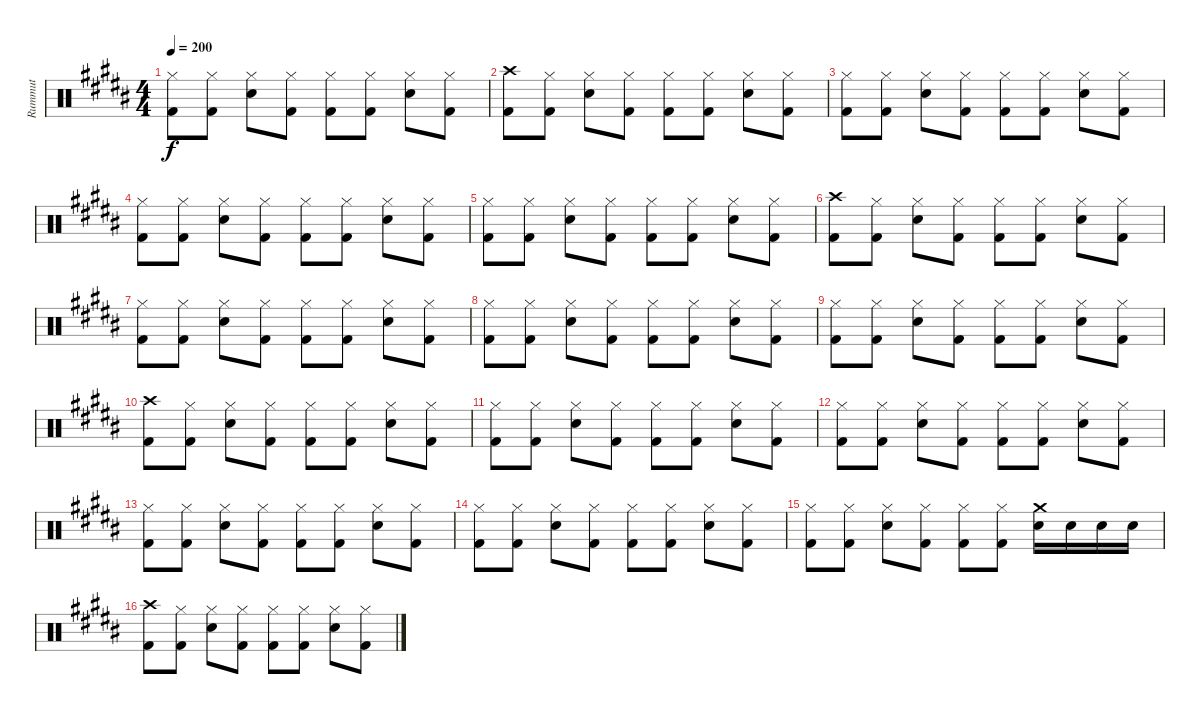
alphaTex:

\track ("Rummut" "Rummut") {instrument percussion}
\staff {score}
\articulation defaults
\ts (4 4)
\tempo 200
\clef neutral
\ks b
("Hi-Hat (closed)" "Kick (hit) 2").8{dy f} ("Hi-Hat (closed)" "Kick (hit) 2").8 ("Hi-Hat (closed)" "Electric Snare (hit)").8 ("Hi-Hat (closed)" "Kick (hit) 2").8 ("Hi-Hat (closed)" "Kick (hit) 2").8 ("Hi-Hat (closed)" "Kick (hit) 2").8 ("Hi-Hat (closed)" "Electric Snare (hit)").8 ("Hi-Hat (closed)" "Kick (hit) 2").8 |
("Crash high (hit)" "Kick (hit) 2").8 ("Hi-Hat (closed)" "Kick (hit) 2").8 ("Hi-Hat (closed)" "Electric Snare (hit)").8 ("Hi-Hat (closed)" "Kick (hit) 2").8 ("Hi-Hat (closed)" "Kick (hit) 2").8 ("Hi-Hat (closed)" "Kick (hit) 2").8 ("Hi-Hat (closed)" "Electric Snare (hit)").8 ("Hi-Hat (closed)" "Kick (hit) 2").8 |
("Hi-Hat (closed)" "Kick (hit) 2").8 ("Hi-Hat (closed)" "Kick (hit) 2").8 ("Hi-Hat (closed)" "Electric Snare (hit)").8 ("Hi-Hat (closed)" "Kick (hit) 2").8 ("Hi-Hat (closed)" "Kick (hit) 2").8 ("Hi-Hat (closed)" "Kick (hit) 2").8 ("Hi-Hat (closed)" "Electric Snare (hit)").8 ("Hi-Hat (closed)" "Kick (hit) 2").8 |
("Hi-Hat (closed)" "Kick (hit) 2").8 ("Hi-Hat (closed)" "Kick (hit) 2").8 ("Hi-Hat (closed)" "Electric Snare (hit)").8 ("Hi-Hat (closed)" "Kick (hit) 2").8 ("Hi-Hat (closed)" "Kick (hit) 2").8 ("Hi-Hat (closed)" "Kick (hit) 2").8 ("Hi-Hat (closed)" "Electric Snare (hit)").8 ("Hi-Hat (closed)" "Kick (hit) 2").8 |
("Hi-Hat (closed)" "Kick (hit) 2").8 ("Hi-Hat (closed)" "Kick (hit) 2").8 ("Hi-Hat (closed)" "Electric Snare (hit)").8 ("Hi-Hat (closed)" "Kick (hit) 2").8 ("Hi-Hat (closed)" "Kick (hit) 2").8 ("Hi-Hat (closed)" "Kick (hit) 2").8 ("Hi-Hat (closed)" "Electric Snare (hit)").8 ("Hi-Hat (closed)" "Kick (hit) 2").8 |
("Crash high (hit)" "Kick (hit) 2").8 ("Hi-Hat (closed)" "Kick (hit) 2").8 ("Hi-Hat (closed)" "Electric Snare (hit)").8 ("Hi-Hat (closed)" "Kick (hit) 2").8 ("Hi-Hat (closed)" "Kick (hit) 2").8 ("Hi-Hat (closed)" "Kick (hit) 2").8 ("Hi-Hat (closed)" "Electric Snare (hit)").8 ("Hi-Hat (closed)" "Kick (hit) 2").8 |
("Hi-Hat (closed)" "Kick (hit) 2").8 ("Hi-Hat (closed)" "Kick (hit) 2").8 ("Hi-Hat (closed)" "Electric Snare (hit)").8 ("Hi-Hat (closed)" "Kick (hit) 2").8 ("Hi-Hat (closed)" "Kick (hit) 2").8 ("Hi-Hat (closed)" "Kick (hit) 2").8 ("Hi-Hat (closed)" "Electric Snare (hit)").8 ("Hi-Hat (closed)" "Kick (hit) 2").8 |
("Hi-Hat (closed)" "Kick (hit) 2").8 ("Hi-Hat (closed)" "Kick (hit) 2").8 ("Hi-Hat (closed)" "Electric Snare (hit)").8 ("Hi-Hat (closed)" "Kick (hit) 2").8 ("Hi-Hat (closed)" "Kick (hit) 2").8 ("Hi-Hat (closed)" "Kick (hit) 2").8 ("Hi-Hat (closed)" "Electric Snare (hit)").8 ("Hi-Hat (closed)" "Kick (hit) 2").8 |
("Hi-Hat (closed)" "Kick (hit) 2").8 ("Hi-Hat (closed)" "Kick (hit) 2").8 ("Hi-Hat (closed)" "Electric Snare (hit)").8 ("Hi-Hat (closed)" "Kick (hit) 2").8 ("Hi-Hat (closed)" "Kick (hit) 2").8 ("Hi-Hat (closed)" "Kick (hit) 2").8 ("Hi-Hat (closed)" "Electric Snare (hit)").8 ("Hi-Hat (closed)" "Kick (hit) 2").8 |
("Crash high (hit)" "Kick (hit) 2").8 ("Hi-Hat (closed)" "Kick (hit) 2").8 ("Hi-Hat (closed)" "Electric Snare (hit)").8 ("Hi-Hat (closed)" "Kick (hit) 2").8 ("Hi-Hat (closed)" "Kick (hit) 2").8 ("Hi-Hat (closed)" "Kick (hit) 2").8 ("Hi-Hat (closed)" "Electric Snare (hit)").8 ("Hi-Hat (closed)" "Kick (hit) 2").8 |
("Hi-Hat (closed)" "Kick (hit) 2").8 ("Hi-Hat (closed)" "Kick (hit) 2").8 ("Hi-Hat (closed)" "Electric Snare (hit)").8 ("Hi-Hat (closed)" "Kick (hit) 2").8 ("Hi-Hat (closed)" "Kick (hit) 2").8 ("Hi-Hat (closed)" "Kick (hit) 2").8 ("Hi-Hat (closed)" "Electric Snare (hit)").8 ("Hi-Hat (closed)" "Kick (hit) 2").8 |
("Hi-Hat (closed)" "Kick (hit) 2").8 ("Hi-Hat (closed)" "Kick (hit) 2").8 ("Hi-Hat (closed)" "Electric Snare (hit)").8 ("Hi-Hat (closed)" "Kick (hit) 2").8 ("Hi-Hat (closed)" "Kick (hit) 2").8 ("Hi-Hat (closed)" "Kick (hit) 2").8 ("Hi-Hat (closed)" "Electric Snare (hit)").8 ("Hi-Hat (closed)" "Kick (hit) 2").8 |
("Hi-Hat (closed)" "Kick (hit) 2").8 ("Hi-Hat (closed)" "Kick (hit) 2").8 ("Hi-Hat (closed)" "Electric Snare (hit)").8 ("Hi-Hat (closed)" "Kick (hit) 2").8 ("Hi-Hat (closed)" "Kick (hit) 2").8 ("Hi-Hat (closed)" "Kick (hit) 2").8 ("Hi-Hat (closed)" "Electric Snare (hit)").8 ("Hi-Hat (closed)" "Kick (hit) 2").8 |
("Hi-Hat (closed)" "Kick (hit) 2").8 ("Hi-Hat (closed)" "Kick (hit) 2").8 ("Hi-Hat (closed)" "Electric Snare (hit)").8 ("Hi-Hat (closed)" "Kick (hit) 2").8 ("Hi-Hat (closed)" "Kick (hit) 2").8 ("Hi-Hat (closed)" "Kick (hit) 2").8 ("Hi-Hat (closed)" "Electric Snare (hit)").8 ("Hi-Hat (closed)" "Kick (hit) 2").8 |
("Hi-Hat (closed)" "Kick (hit) 2").8 ("Hi-Hat (closed)" "Kick (hit) 2").8 ("Hi-Hat (closed)" "Electric Snare (hit)").8 ("Hi-Hat (closed)" "Kick (hit) 2").8 ("Hi-Hat (closed)" "Kick (hit) 2").8 ("Hi-Hat (closed)" "Kick (hit) 2").8 ("Crash medium (hit)" "Electric Snare (hit)").16 "Electric Snare (hit)".16 "Electric Snare (hit)".16 "Electric Snare (hit)".16 |
("Crash high (hit)" "Kick (hit) 2").8 ("Hi-Hat (closed)" "Kick (hit) 2").8 ("Hi-Hat (closed)" "Electric Snare (hit)").8 ("Hi-Hat (closed)" "Kick (hit) 2").8 ("Hi-Hat (closed)" "Kick (hit) 2").8 ("Hi-Hat (closed)" "Kick (hit) 2").8 ("Hi-Hat (closed)" "Electric Snare (hit)").8 ("Hi-Hat (closed)" "Kick (hit) 2").8
